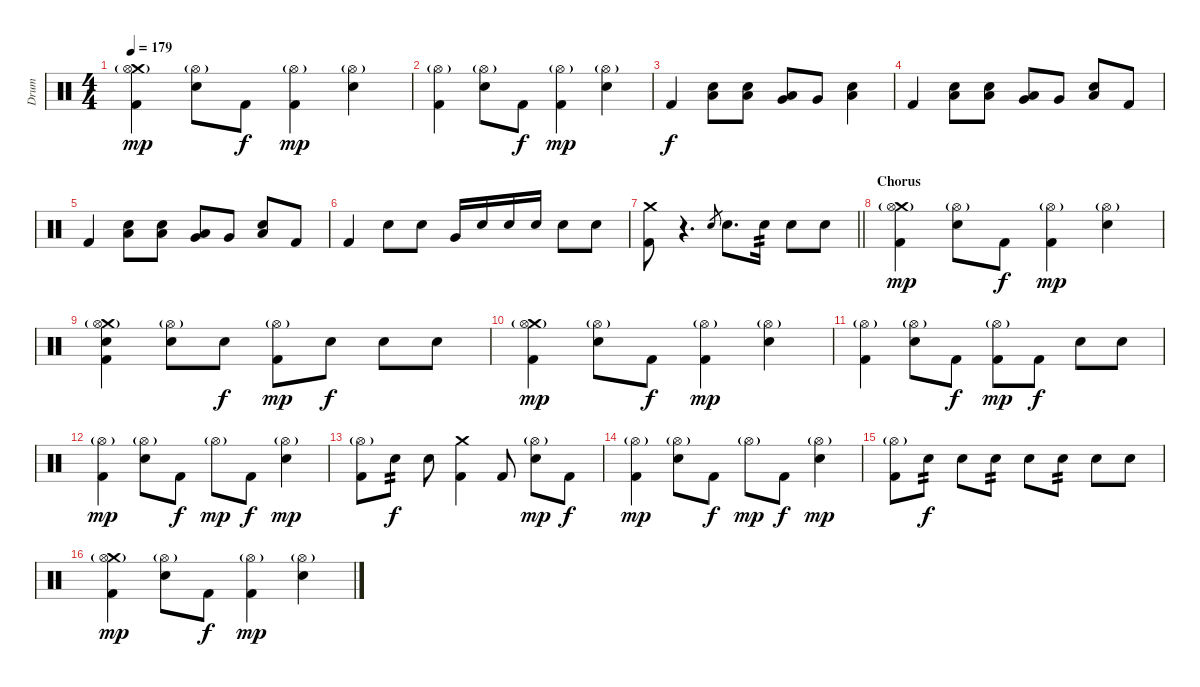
\track ("Drum" "Drum") {instrument percussion}
\staff {score}
\articulation defaults
\ts (4 4)
\tempo 179
\clef neutral
\ks c
("Crash medium (hit)" "Hi-Hat (open)"{g} "Kick (hit) 2").4{dy mp} ("Hi-Hat (open)"{g} "Electric Snare (hit)").8 "Kick (hit) 2".8{dy f} ("Hi-Hat (open)"{g} "Kick (hit) 2").4{dy mp} ("Hi-Hat (open)"{g} "Electric Snare (hit)").4 |
("Hi-Hat (open)"{g} "Kick (hit) 2").4 ("Hi-Hat (open)"{g} "Electric Snare (hit)").8 "Kick (hit) 2".8{dy f} ("Hi-Hat (open)"{g} "Kick (hit) 2").4{dy mp} ("Hi-Hat (open)"{g} "Electric Snare (hit)").4 |
"Kick (hit) 2".4{dy f} ("Electric Snare (hit)" "Low Floor Tom (hit)").8 ("Electric Snare (hit)" "Low Floor Tom (hit)").8 ("Low Tom (hit)" "Very Low Tom (hit)").8 "Very Low Tom (hit)".8 ("Electric Snare (hit)" "Low Floor Tom (hit)").4 |
"Kick (hit) 2".4 ("Electric Snare (hit)" "Low Floor Tom (hit)").8 ("Electric Snare (hit)" "Low Floor Tom (hit)").8 ("Low Tom (hit)" "Very Low Tom (hit)").8 "Very Low Tom (hit)".8 ("Electric Snare (hit)" "Low Floor Tom (hit)").8 "Kick (hit) 2".8 |
"Kick (hit) 2".4 ("Electric Snare (hit)" "Low Floor Tom (hit)").8 ("Electric Snare (hit)" "Low Floor Tom (hit)").8 ("Low Tom (hit)" "Very Low Tom (hit)").8 "Very Low Tom (hit)".8 ("Electric Snare (hit)" "Low Floor Tom (hit)").8 "Kick (hit) 2".8 |
"Kick (hit) 2".4 "Electric Snare (hit)".8 "Electric Snare (hit)".8 "Very Low Tom (hit)".16 "Electric Snare (hit)".16 "Electric Snare (hit)".16 "Electric Snare (hit)".16 "Electric Snare (hit)".8 "Electric Snare (hit)".8 |
\barLineRight lightlight
("Crash medium (hit)" "Kick (hit) 2").8 r.4{d} "Electric Snare (hit)".8{gr} "Electric Snare (hit)".8{d} "Electric Snare (hit)".16{tp 2} "Electric Snare (hit)".8 "Electric Snare (hit)".8 |
\section ("" "Chorus")
("Crash medium (hit)" "Hi-Hat (open)"{g} "Kick (hit) 2").4{dy mp} ("Hi-Hat (open)"{g} "Electric Snare (hit)").8 "Kick (hit) 2".8{dy f} ("Hi-Hat (open)"{g} "Kick (hit) 2").4{dy mp} ("Hi-Hat (open)"{g} "Electric Snare (hit)").4 |
("Crash medium (hit)" "Hi-Hat (open)"{g} "Electric Snare (hit)" "Kick (hit) 2").4 ("Hi-Hat (open)"{g} "Electric Snare (hit)").8 "Electric Snare (hit)".8{dy f} ("Hi-Hat (open)"{g} "Kick (hit) 2").8{dy mp} "Electric Snare (hit)".8{dy f} "Electric Snare (hit)".8 "Electric Snare (hit)".8 |
("Crash medium (hit)" "Hi-Hat (open)"{g} "Kick (hit) 2").4{dy mp} ("Hi-Hat (open)"{g} "Electric Snare (hit)").8 "Kick (hit) 2".8{dy f} ("Hi-Hat (open)"{g} "Kick (hit) 2").4{dy mp} ("Hi-Hat (open)"{g} "Electric Snare (hit)").4 |
("Hi-Hat (open)"{g} "Kick (hit) 2").4 ("Hi-Hat (open)"{g} "Electric Snare (hit)").8 "Kick (hit) 2".8{dy f} ("Hi-Hat (open)"{g} "Kick (hit) 2").8{dy mp} "Kick (hit) 2".8{dy f} "Electric Snare (hit)".8 "Electric Snare (hit)".8 |
("Hi-Hat (open)"{g} "Kick (hit) 2").4{dy mp} ("Hi-Hat (open)"{g} "Electric Snare (hit)").8 "Kick (hit) 2".8{dy f} "Hi-Hat (open)"{g}.8{dy mp} "Kick (hit) 2".8{dy f} ("Hi-Hat (open)"{g} "Electric Snare (hit)").4{dy mp} |
("Hi-Hat (open)"{g} "Kick (hit) 2").8 "Electric Snare (hit)".8{tp 2 dy f} "Electric Snare (hit)".8 ("Crash medium (hit)" "Kick (hit) 2").4 "Kick (hit) 2".8 ("Hi-Hat (open)"{g} "Electric Snare (hit)").8{dy mp} "Kick (hit) 2".8{dy f} |
("Hi-Hat (open)"{g} "Kick (hit) 2").4{dy mp} ("Hi-Hat (open)"{g} "Electric Snare (hit)").8 "Kick (hit) 2".8{dy f} "Hi-Hat (open)"{g}.8{dy mp} "Kick (hit) 2".8{dy f} ("Hi-Hat (open)"{g} "Electric Snare (hit)").4{dy mp} |
("Hi-Hat (open)"{g} "Kick (hit) 2").8 "Electric Snare (hit)".8{tp 2 dy f} "Electric Snare (hit)".8 "Electric Snare (hit)".8{tp 2} "Electric Snare (hit)".8 "Electric Snare (hit)".8{tp 2} "Electric Snare (hit)".8 "Electric Snare (hit)".8 |
("Crash medium (hit)" "Hi-Hat (open)"{g} "Kick (hit) 2").4{dy mp} ("Hi-Hat (open)"{g} "Electric Snare (hit)").8 "Kick (hit) 2".8{dy f} ("Hi-Hat (open)"{g} "Kick (hit) 2").4{dy mp} ("Hi-Hat (open)"{g} "Electric Snare (hit)").4
